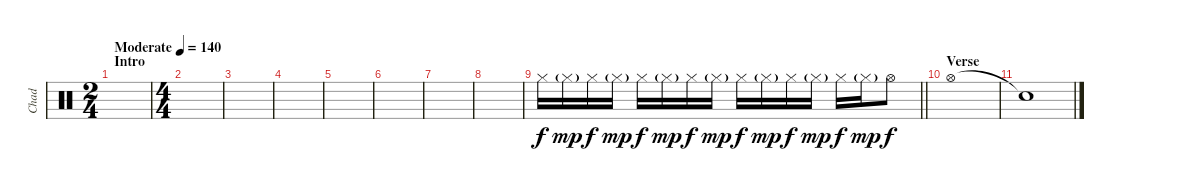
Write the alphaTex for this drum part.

\track ("Chad" "Chad") {instrument percussion}
\staff {score}
\articulation defaults
\ts (2 4)
\section ("" "Intro")
\tempo (140 "Moderate")
\clef neutral
\ks c
|
\ts (4 4)
|
|
|
|
|
|
|
\barLineRight lightlight "Hi-Hat (closed)".16 "Hi-Hat (closed)"{g}.16{dy mp} "Hi-Hat (closed)".16{dy f} "Hi-Hat (closed)"{g}.16{dy mp} "Hi-Hat (closed)".16{dy f} "Hi-Hat (closed)"{g}.16{dy mp} "Hi-Hat (closed)".16{dy f} "Hi-Hat (closed)"{g}.16{dy mp} "Hi-Hat (closed)".16{dy f} "Hi-Hat (closed)"{g}.16{dy mp} "Hi-Hat (closed)".16{dy f} "Hi-Hat (closed)"{g}.16{dy mp} "Hi-Hat (closed)".16{dy f} "Hi-Hat (closed)"{g}.16{dy mp} "Hi-Hat (open)".8{dy f}
|
\section ("" "Verse")
"Hi-Hat (open)".1 |
"Snare (hit)"{t}.1
